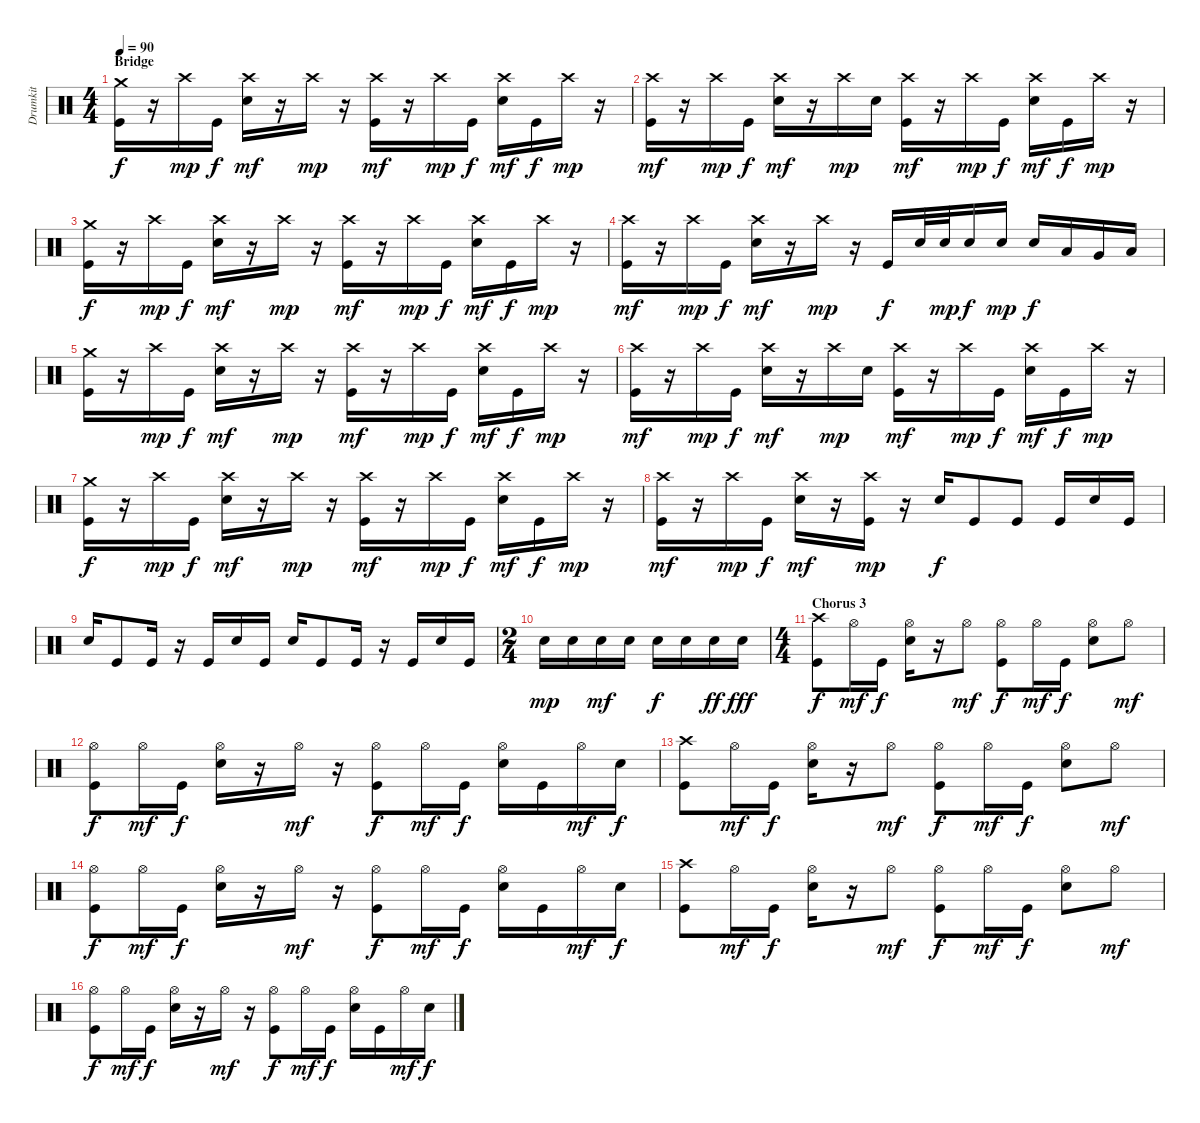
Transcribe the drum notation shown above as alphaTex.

\track ("Drumkit" "Drumkit") {instrument percussion}
\staff {score}
\articulation defaults
\ts (4 4)
\section ("" "Bridge")
\tempo 90
\clef neutral
\ks c
("Crash medium (hit)" "Kick (hit)").16{dy f} r.16 "Crash high (hit)".16{dy mp} "Kick (hit)".16{dy f} ("Crash high (hit)" "Snare (hit) 2").16{dy mf} r.16 "Crash high (hit)".16{dy mp} r.16 ("Crash high (hit)" "Kick (hit)").16{dy mf} r.16 "Crash high (hit)".16{dy mp} "Kick (hit)".16{dy f} ("Crash high (hit)" "Snare (hit) 2").16{dy mf} "Kick (hit)".16{dy f} "Crash high (hit)".16{dy mp} r.16 |
("Crash high (hit)" "Kick (hit)").16{dy mf} r.16 "Crash high (hit)".16{dy mp} "Kick (hit)".16{dy f} ("Crash high (hit)" "Snare (hit) 2").16{dy mf} r.16 "Crash high (hit)".16{dy mp} "Snare (hit) 2".16 ("Crash high (hit)" "Kick (hit)").16{dy mf} r.16 "Crash high (hit)".16{dy mp} "Kick (hit)".16{dy f} ("Crash high (hit)" "Snare (hit) 2").16{dy mf} "Kick (hit)".16{dy f} "Crash high (hit)".16{dy mp} r.16 |
("Crash medium (hit)" "Kick (hit)").16{dy f} r.16 "Crash high (hit)".16{dy mp} "Kick (hit)".16{dy f} ("Crash high (hit)" "Snare (hit) 2").16{dy mf} r.16 "Crash high (hit)".16{dy mp} r.16 ("Crash high (hit)" "Kick (hit)").16{dy mf} r.16 "Crash high (hit)".16{dy mp} "Kick (hit)".16{dy f} ("Crash high (hit)" "Snare (hit) 2").16{dy mf} "Kick (hit)".16{dy f} "Crash high (hit)".16{dy mp} r.16 |
("Crash high (hit)" "Kick (hit)").16{dy mf} r.16 "Crash high (hit)".16{dy mp} "Kick (hit)".16{dy f} ("Crash high (hit)" "Snare (hit) 2").16{dy mf} r.16 "Crash high (hit)".16{dy mp} r.16 "Kick (hit)".16{dy f} "Snare (hit) 2".32 "Snare (hit) 2".32{dy mp} "Snare (hit) 2".16{dy f} "Snare (hit) 2".16{dy mp} "Snare (hit) 2".16{dy f} "Low Tom (hit)".16 "Very Low Tom (hit)".16 "Low Floor Tom (hit)".16 |
("Crash medium (hit)" "Kick (hit)").16 r.16 "Crash high (hit)".16{dy mp} "Kick (hit)".16{dy f} ("Crash high (hit)" "Snare (hit) 2").16{dy mf} r.16 "Crash high (hit)".16{dy mp} r.16 ("Crash high (hit)" "Kick (hit)").16{dy mf} r.16 "Crash high (hit)".16{dy mp} "Kick (hit)".16{dy f} ("Crash high (hit)" "Snare (hit) 2").16{dy mf} "Kick (hit)".16{dy f} "Crash high (hit)".16{dy mp} r.16 |
("Crash high (hit)" "Kick (hit)").16{dy mf} r.16 "Crash high (hit)".16{dy mp} "Kick (hit)".16{dy f} ("Crash high (hit)" "Snare (hit) 2").16{dy mf} r.16 "Crash high (hit)".16{dy mp} "Snare (hit) 2".16 ("Crash high (hit)" "Kick (hit)").16{dy mf} r.16 "Crash high (hit)".16{dy mp} "Kick (hit)".16{dy f} ("Crash high (hit)" "Snare (hit) 2").16{dy mf} "Kick (hit)".16{dy f} "Crash high (hit)".16{dy mp} r.16 |
("Crash medium (hit)" "Kick (hit)").16{dy f} r.16 "Crash high (hit)".16{dy mp} "Kick (hit)".16{dy f} ("Crash high (hit)" "Snare (hit) 2").16{dy mf} r.16 "Crash high (hit)".16{dy mp} r.16 ("Crash high (hit)" "Kick (hit)").16{dy mf} r.16 "Crash high (hit)".16{dy mp} "Kick (hit)".16{dy f} ("Crash high (hit)" "Snare (hit) 2").16{dy mf} "Kick (hit)".16{dy f} "Crash high (hit)".16{dy mp} r.16 |
("Crash high (hit)" "Kick (hit)").16{dy mf} r.16 "Crash high (hit)".16{dy mp} "Kick (hit)".16{dy f} ("Crash high (hit)" "Snare (hit) 2").16{dy mf} r.16 ("Crash high (hit)" "Kick (hit)").16{dy mp} r.16 "Snare (hit) 2".16{dy f} "Kick (hit)".8 "Kick (hit)".8 "Kick (hit)".16 "Snare (hit) 2".16 "Kick (hit)".16 |
"Snare (hit) 2".16 "Kick (hit)".8 "Kick (hit)".16 r.16 "Kick (hit)".16 "Snare (hit) 2".16 "Kick (hit)".16 "Snare (hit) 2".16 "Kick (hit)".8 "Kick (hit)".16 r.16 "Kick (hit)".16 "Snare (hit) 2".16 "Kick (hit)".16 |
\ts (2 4)
"Snare (hit) 2".16{dy mp} "Snare (hit) 2".16 "Snare (hit) 2".16{dy mf} "Snare (hit) 2".16 "Snare (hit) 2".16{dy f} "Snare (hit) 2".16 "Snare (hit) 2".16{dy ff} "Snare (hit) 2".16{dy fff} |
\ts (4 4)
\section ("" "Chorus 3")
("Crash high (hit)" "Kick (hit)").8{dy f} "Hi-Hat (open)".16{dy mf} "Kick (hit)".16{dy f} ("Hi-Hat (open)" "Snare (hit) 2").16 r.16 "Hi-Hat (open)".8{dy mf} ("Hi-Hat (open)" "Kick (hit)").8{dy f} "Hi-Hat (open)".16{dy mf} "Kick (hit)".16{dy f} ("Hi-Hat (open)" "Snare (hit) 2").8 "Hi-Hat (open)".8{dy mf} |
("Hi-Hat (open)" "Kick (hit)").8{dy f} "Hi-Hat (open)".16{dy mf} "Kick (hit)".16{dy f} ("Hi-Hat (open)" "Snare (hit) 2").16 r.16 "Hi-Hat (open)".16{dy mf} r.16 ("Hi-Hat (open)" "Kick (hit)").8{dy f} "Hi-Hat (open)".16{dy mf} "Kick (hit)".16{dy f} ("Hi-Hat (open)" "Snare (hit) 2").16 "Kick (hit)".16 "Hi-Hat (open)".16{dy mf} "Snare (hit) 2".16{dy f} |
("Crash high (hit)" "Kick (hit)").8 "Hi-Hat (open)".16{dy mf} "Kick (hit)".16{dy f} ("Hi-Hat (open)" "Snare (hit) 2").16 r.16 "Hi-Hat (open)".8{dy mf} ("Hi-Hat (open)" "Kick (hit)").8{dy f} "Hi-Hat (open)".16{dy mf} "Kick (hit)".16{dy f} ("Hi-Hat (open)" "Snare (hit) 2").8 "Hi-Hat (open)".8{dy mf} |
("Hi-Hat (open)" "Kick (hit)").8{dy f} "Hi-Hat (open)".16{dy mf} "Kick (hit)".16{dy f} ("Hi-Hat (open)" "Snare (hit) 2").16 r.16 "Hi-Hat (open)".16{dy mf} r.16 ("Hi-Hat (open)" "Kick (hit)").8{dy f} "Hi-Hat (open)".16{dy mf} "Kick (hit)".16{dy f} ("Hi-Hat (open)" "Snare (hit) 2").16 "Kick (hit)".16 "Hi-Hat (open)".16{dy mf} "Snare (hit) 2".16{dy f} |
("Crash high (hit)" "Kick (hit)").8 "Hi-Hat (open)".16{dy mf} "Kick (hit)".16{dy f} ("Hi-Hat (open)" "Snare (hit) 2").16 r.16 "Hi-Hat (open)".8{dy mf} ("Hi-Hat (open)" "Kick (hit)").8{dy f} "Hi-Hat (open)".16{dy mf} "Kick (hit)".16{dy f} ("Hi-Hat (open)" "Snare (hit) 2").8 "Hi-Hat (open)".8{dy mf} |
("Hi-Hat (open)" "Kick (hit)").8{dy f} "Hi-Hat (open)".16{dy mf} "Kick (hit)".16{dy f} ("Hi-Hat (open)" "Snare (hit) 2").16 r.16 "Hi-Hat (open)".16{dy mf} r.16 ("Hi-Hat (open)" "Kick (hit)").8{dy f} "Hi-Hat (open)".16{dy mf} "Kick (hit)".16{dy f} ("Hi-Hat (open)" "Snare (hit) 2").16 "Kick (hit)".16 "Hi-Hat (open)".16{dy mf} "Snare (hit) 2".16{dy f}
